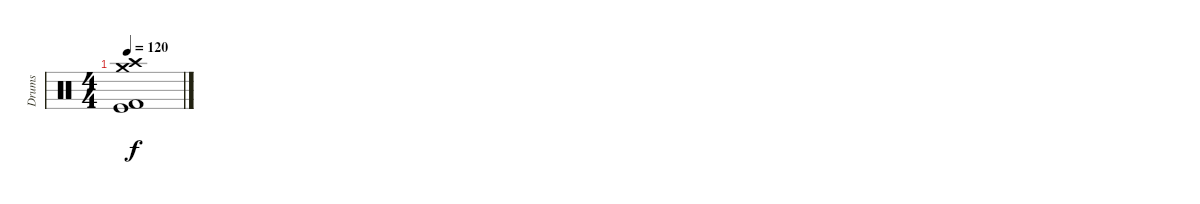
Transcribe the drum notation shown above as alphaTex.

\track ("Drums" "Drums") {instrument percussion}
\staff {score}
\articulation defaults
\ts (4 4)
\tempo 120
\clef neutral
\ks c
("Crash high (hit)" "Crash medium (hit)" "Kick (hit)" "Kick (hit) 2").1{dy f}
